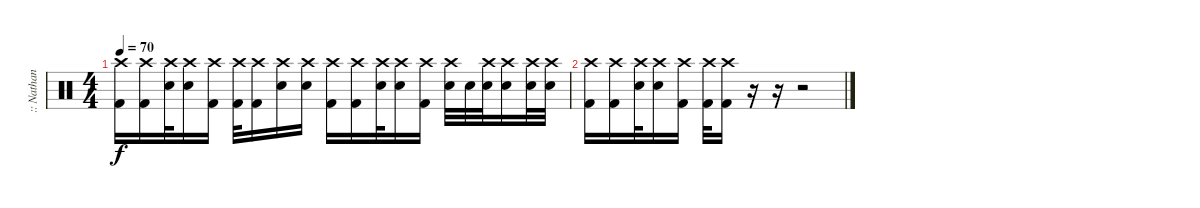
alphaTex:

\track (":: Nathan Jonas Jordison #1 ::" ":: Nathan ") {instrument percussion}
\staff {score}
\articulation defaults
\ts (4 4)
\tempo 70
\clef neutral
\ks c
("Crash high (hit)" "Kick (hit) 2").16{dy f} ("Crash high (hit)" "Kick (hit) 2").16 ("Crash high (hit)" "Electric Snare (hit)").32 ("Crash high (hit)" "Snare (hit) 2").16 ("Crash high (hit)" "Kick (hit) 2").16 ("Crash high (hit)" "Kick (hit) 2").32 ("Crash high (hit)" "Kick (hit) 2").16 ("Crash high (hit)" "Electric Snare (hit)").16 ("Crash high (hit)" "Snare (hit) 2").16 ("Crash high (hit)" "Kick (hit) 2").16 ("Crash high (hit)" "Kick (hit) 2").16 ("Crash high (hit)" "Electric Snare (hit)").32 ("Crash high (hit)" "Snare (hit) 2").16 ("Crash high (hit)" "Kick (hit) 2").16 ("Crash high (hit)" "Electric Snare (hit)").32 "Snare (hit) 2".32 ("Crash high (hit)" "Snare (hit) 2").32 ("Crash high (hit)" "Electric Snare (hit)").16 ("Crash high (hit)" "Electric Snare (hit)").32 ("Crash high (hit)" "Electric Snare (hit)").32 |
("Crash high (hit)" "Kick (hit) 2").16 ("Crash high (hit)" "Kick (hit) 2").16 ("Crash high (hit)" "Electric Snare (hit)").32 ("Crash high (hit)" "Snare (hit) 2").16 ("Crash high (hit)" "Kick (hit) 2").16 ("Crash high (hit)" "Kick (hit) 2").32 ("Crash high (hit)" "Kick (hit) 2").16 r.16 r.16 r.2
